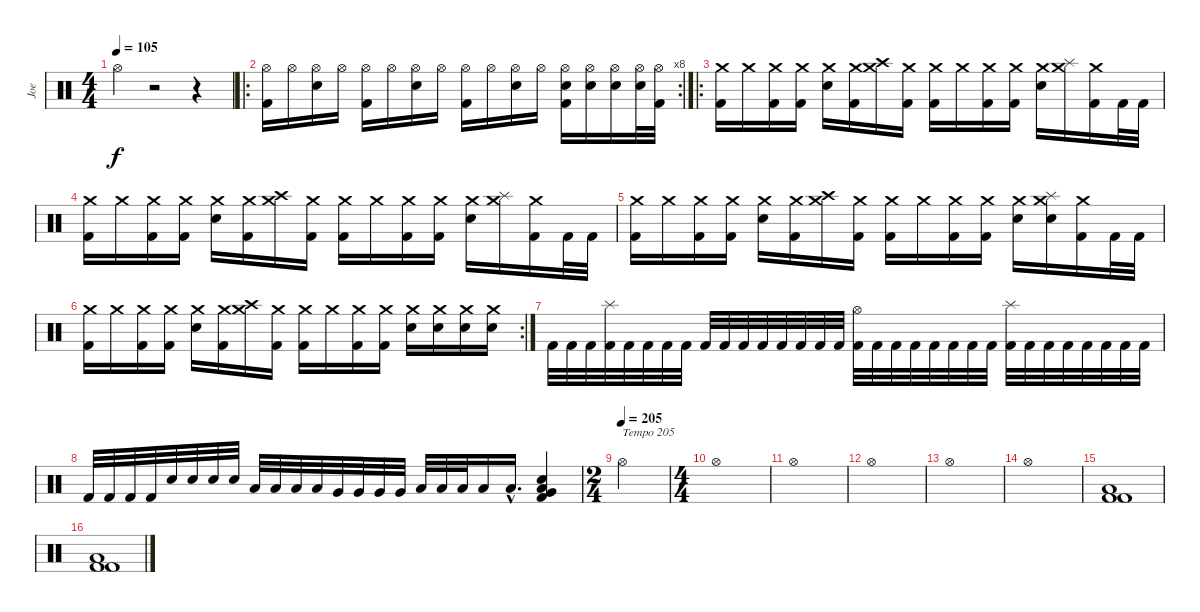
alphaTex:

\track ("Joe" "Joe") {instrument percussion}
\staff {score}
\articulation defaults
\ts (4 4)
\tempo 105
\clef neutral
\ks c "Hi-Hat (open)".4{dy f}
r.2 r.4 |
\ro
\rc 8
("Kick (hit) 2" "Hi-Hat (open)").16 "Hi-Hat (open)".16 ("Hi-Hat (open)" "Electric Snare (hit)").16 "Hi-Hat (open)".16 ("Kick (hit) 2" "Hi-Hat (open)").16 "Hi-Hat (open)".16 ("Hi-Hat (open)" "Electric Snare (hit)").16 "Hi-Hat (open)".16 ("Kick (hit) 2" "Hi-Hat (open)").16 "Hi-Hat (open)".16 ("Hi-Hat (open)" "Electric Snare (hit)").16 "Hi-Hat (open)".16 ("Kick (hit) 2" "Hi-Hat (open)" "Electric Snare (hit)").16 ("Hi-Hat (open)" "Electric Snare (hit)").16 ("Hi-Hat (open)" "Electric Snare (hit)").16 ("Hi-Hat (open)" "Electric Snare (hit)").32 ("Kick (hit) 2" "Hi-Hat (open)").32 |
\ro
("Kick (hit) 2" "Crash medium (hit)").16 "Crash medium (hit)".16 ("Kick (hit) 2" "Crash medium (hit)").16 ("Kick (hit) 2" "Crash medium (hit)").16 ("Crash medium (hit)" "Electric Snare (hit)").16 ("Kick (hit) 2" "Crash medium (hit)").16 ("Crash high (hit)" "Crash medium (hit)").16 ("Kick (hit) 2" "Crash medium (hit)").16 ("Kick (hit) 2" "Crash medium (hit)").16 "Crash medium (hit)".16 ("Kick (hit) 2" "Crash medium (hit)").16 ("Kick (hit) 2" "Crash medium (hit)").16 ("Crash medium (hit)" "Electric Snare (hit)").16 ("Splash (hit)" "Crash medium (hit)").16 ("Kick (hit) 2" "Crash medium (hit)").16 "Kick (hit) 2".32 "Kick (hit) 2".32 |
("Kick (hit) 2" "Crash medium (hit)").16 "Crash medium (hit)".16 ("Kick (hit) 2" "Crash medium (hit)").16 ("Kick (hit) 2" "Crash medium (hit)").16 ("Crash medium (hit)" "Electric Snare (hit)").16 ("Kick (hit) 2" "Crash medium (hit)").16 ("Crash high (hit)" "Crash medium (hit)").16 ("Kick (hit) 2" "Crash medium (hit)").16 ("Kick (hit) 2" "Crash medium (hit)").16 "Crash medium (hit)".16 ("Kick (hit) 2" "Crash medium (hit)").16 ("Kick (hit) 2" "Crash medium (hit)").16 ("Crash medium (hit)" "Electric Snare (hit)").16 ("Splash (hit)" "Crash medium (hit)").16 ("Kick (hit) 2" "Crash medium (hit)").16 "Kick (hit) 2".32 "Kick (hit) 2".32 |
("Kick (hit) 2" "Crash medium (hit)").16 "Crash medium (hit)".16 ("Kick (hit) 2" "Crash medium (hit)").16 ("Kick (hit) 2" "Crash medium (hit)").16 ("Crash medium (hit)" "Electric Snare (hit)").16 ("Kick (hit) 2" "Crash medium (hit)").16 ("Crash high (hit)" "Crash medium (hit)").16 ("Kick (hit) 2" "Crash medium (hit)").16 ("Kick (hit) 2" "Crash medium (hit)").16 "Crash medium (hit)".16 ("Kick (hit) 2" "Crash medium (hit)").16 ("Kick (hit) 2" "Crash medium (hit)").16 ("Crash medium (hit)" "Electric Snare (hit)").16 ("Splash (hit)" "Crash medium (hit)" "Electric Snare (hit)").16 ("Kick (hit) 2" "Crash medium (hit)").16 "Kick (hit) 2".32 "Kick (hit) 2".32 |
\rc 2
("Kick (hit) 2" "Crash medium (hit)").16 "Crash medium (hit)".16 ("Kick (hit) 2" "Crash medium (hit)").16 ("Kick (hit) 2" "Crash medium (hit)").16 ("Crash medium (hit)" "Electric Snare (hit)").16 ("Kick (hit) 2" "Crash medium (hit)").16 ("Crash high (hit)" "Crash medium (hit)").16 ("Kick (hit) 2" "Crash medium (hit)").16 ("Kick (hit) 2" "Crash medium (hit)").16 "Crash medium (hit)".16 ("Kick (hit) 2" "Crash medium (hit)").16 ("Kick (hit) 2" "Crash medium (hit)").16 ("Crash medium (hit)" "Electric Snare (hit)").16 ("Crash medium (hit)" "Electric Snare (hit)").16 ("Crash medium (hit)" "Electric Snare (hit)").16 ("Crash medium (hit)" "Electric Snare (hit)").16 |
"Kick (hit) 2".32 "Kick (hit) 2".32 "Kick (hit) 2".32 ("Kick (hit) 2" "Splash (hit)").32 "Kick (hit) 2".32 "Kick (hit) 2".32 "Kick (hit) 2".32 "Kick (hit) 2".32 "Kick (hit) 2".32 "Kick (hit) 2".32 "Kick (hit) 2".32 "Kick (hit) 2".32 "Kick (hit) 2".32 "Kick (hit) 2".32 "Kick (hit) 2".32 "Kick (hit) 2".32 ("Kick (hit) 2" "Hi-Hat (open)").32 "Kick (hit) 2".32 "Kick (hit) 2".32 "Kick (hit) 2".32 "Kick (hit) 2".32 "Kick (hit) 2".32 "Kick (hit) 2".32 "Kick (hit) 2".32 ("Kick (hit) 2" "Splash (hit)").32 "Kick (hit) 2".32 "Kick (hit) 2".32 "Kick (hit) 2".32 "Kick (hit) 2".32 "Kick (hit) 2".32 "Kick (hit) 2".32 "Kick (hit) 2".32 |
"Kick (hit) 2".32 "Kick (hit) 2".32 "Kick (hit) 2".32 "Kick (hit) 2".32 "Electric Snare (hit)".32 "Electric Snare (hit)".32 "Electric Snare (hit)".32 "Electric Snare (hit)".32 "Low Floor Tom (hit)".32 "Low Floor Tom (hit)".32 "Low Floor Tom (hit)".32 "Low Floor Tom (hit)".32 "Very Low Tom (hit)".32 "Very Low Tom (hit)".32 "Very Low Tom (hit)".32 "Very Low Tom (hit)".32 "Low Floor Tom (hit)".32 "Low Floor Tom (hit)".32 "Low Floor Tom (hit)".32 "Low Floor Tom (hit)".16 "Low Floor Tom (hit)"{hac}.16{d} ("Kick (hit) 2" "Electric Snare (hit)" "Low Floor Tom (hit)" "Very Low Tom (hit)").4 |
\ts (2 4)
\tempo (205)
"Hi-Hat (open)".2{txt "Tempo 205"} |
\ts (4 4)
"Hi-Hat (open)".1 |
"Hi-Hat (open)".1 |
"Hi-Hat (open)".1 |
"Hi-Hat (open)".1 |
"Hi-Hat (open)".1 |
("Kick (hit) 2" "Kick (hit) 2" "Low Floor Tom (hit)").1 |
("Kick (hit) 2" "Kick (hit) 2" "Low Floor Tom (hit)").1
